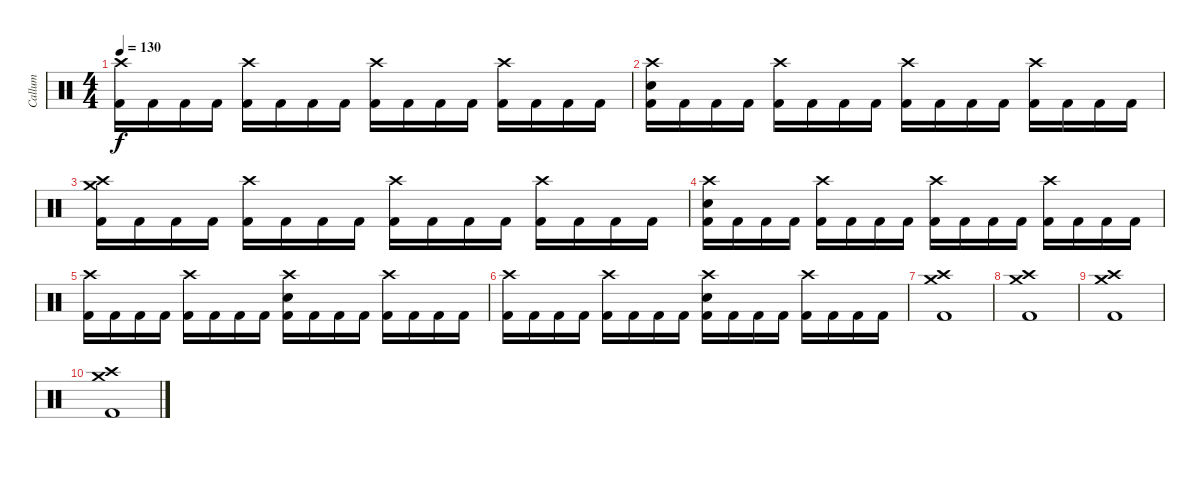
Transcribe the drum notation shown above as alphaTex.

\track ("Callum" "Callum") {instrument percussion}
\staff {score}
\articulation defaults
\ts (4 4)
\tempo 130
\clef neutral
\ks c
("Crash high (hit)" "Kick (hit) 2").16{dy f} "Kick (hit) 2".16 "Kick (hit) 2".16 "Kick (hit) 2".16 ("Crash high (hit)" "Kick (hit) 2").16 "Kick (hit) 2".16 "Kick (hit) 2".16 "Kick (hit) 2".16 ("Crash high (hit)" "Kick (hit) 2").16 "Kick (hit) 2".16 "Kick (hit) 2".16 "Kick (hit) 2".16 ("Crash high (hit)" "Kick (hit) 2").16 "Kick (hit) 2".16 "Kick (hit) 2".16 "Kick (hit) 2".16 |
("Crash high (hit)" "Electric Snare (hit)" "Kick (hit) 2").16 "Kick (hit) 2".16 "Kick (hit) 2".16 "Kick (hit) 2".16 ("Crash high (hit)" "Kick (hit) 2").16 "Kick (hit) 2".16 "Kick (hit) 2".16 "Kick (hit) 2".16 ("Crash high (hit)" "Kick (hit) 2").16 "Kick (hit) 2".16 "Kick (hit) 2".16 "Kick (hit) 2".16 ("Crash high (hit)" "Kick (hit) 2").16 "Kick (hit) 2".16 "Kick (hit) 2".16 "Kick (hit) 2".16 |
("Crash medium (hit)" "Crash high (hit)" "Kick (hit) 2").16 "Kick (hit) 2".16 "Kick (hit) 2".16 "Kick (hit) 2".16 ("Crash high (hit)" "Kick (hit) 2").16 "Kick (hit) 2".16 "Kick (hit) 2".16 "Kick (hit) 2".16 ("Crash high (hit)" "Kick (hit) 2").16 "Kick (hit) 2".16 "Kick (hit) 2".16 "Kick (hit) 2".16 ("Crash high (hit)" "Kick (hit) 2").16 "Kick (hit) 2".16 "Kick (hit) 2".16 "Kick (hit) 2".16 |
("Crash high (hit)" "Electric Snare (hit)" "Kick (hit) 2").16 "Kick (hit) 2".16 "Kick (hit) 2".16 "Kick (hit) 2".16 ("Crash high (hit)" "Kick (hit) 2").16 "Kick (hit) 2".16 "Kick (hit) 2".16 "Kick (hit) 2".16 ("Crash high (hit)" "Kick (hit) 2").16 "Kick (hit) 2".16 "Kick (hit) 2".16 "Kick (hit) 2".16 ("Crash high (hit)" "Kick (hit) 2").16 "Kick (hit) 2".16 "Kick (hit) 2".16 "Kick (hit) 2".16 |
("Crash high (hit)" "Kick (hit) 2").16 "Kick (hit) 2".16 "Kick (hit) 2".16 "Kick (hit) 2".16 ("Crash high (hit)" "Kick (hit) 2").16 "Kick (hit) 2".16 "Kick (hit) 2".16 "Kick (hit) 2".16 ("Crash high (hit)" "Electric Snare (hit)" "Kick (hit) 2").16 "Kick (hit) 2".16 "Kick (hit) 2".16 "Kick (hit) 2".16 ("Crash high (hit)" "Kick (hit) 2").16 "Kick (hit) 2".16 "Kick (hit) 2".16 "Kick (hit) 2".16 |
("Crash high (hit)" "Kick (hit) 2").16 "Kick (hit) 2".16 "Kick (hit) 2".16 "Kick (hit) 2".16 ("Crash high (hit)" "Kick (hit) 2").16 "Kick (hit) 2".16 "Kick (hit) 2".16 "Kick (hit) 2".16 ("Crash high (hit)" "Electric Snare (hit)" "Kick (hit) 2").16 "Kick (hit) 2".16 "Kick (hit) 2".16 "Kick (hit) 2".16 ("Crash high (hit)" "Kick (hit) 2").16 "Kick (hit) 2".16 "Kick (hit) 2".16 "Kick (hit) 2".16 |
("Crash medium (hit)" "Crash high (hit)" "Kick (hit) 2").1 |
("Crash medium (hit)" "Crash high (hit)" "Kick (hit) 2").1 |
("Crash medium (hit)" "Crash high (hit)" "Kick (hit) 2").1 |
("Crash medium (hit)" "Crash high (hit)" "Kick (hit) 2").1
